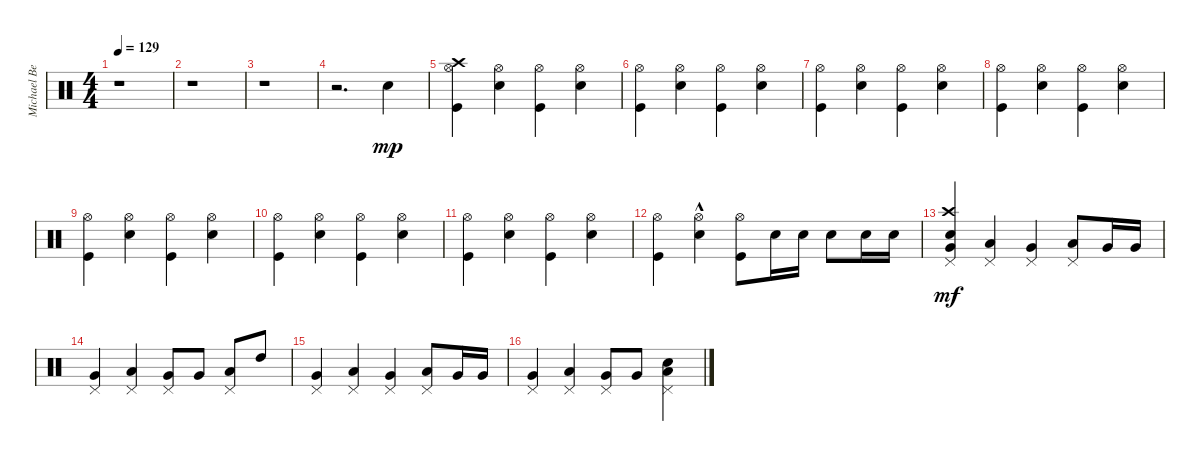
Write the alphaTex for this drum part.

\track ("Michael Beinham" "Michael Be") {instrument percussion}
\staff {score}
\articulation defaults
\ts (4 4)
\tempo 129
\clef neutral
\ks c
r.1{dy mp} |
r.1 |
r.1 |
r.2{d} "Snare (hit) 2".4{balance 8} |
("Kick (hit)" "Hi-Hat (open)" "Crash high (hit)").4 ("Snare (hit) 2" "Hi-Hat (open)").4 ("Kick (hit)" "Hi-Hat (open)").4 ("Snare (hit) 2" "Hi-Hat (open)").4 |
("Kick (hit)" "Hi-Hat (open)").4 ("Snare (hit) 2" "Hi-Hat (open)").4 ("Kick (hit)" "Hi-Hat (open)").4 ("Snare (hit) 2" "Hi-Hat (open)").4 |
("Kick (hit)" "Hi-Hat (open)").4 ("Snare (hit) 2" "Hi-Hat (open)").4 ("Kick (hit)" "Hi-Hat (open)").4 ("Snare (hit) 2" "Hi-Hat (open)").4 |
("Kick (hit)" "Hi-Hat (open)").4 ("Snare (hit) 2" "Hi-Hat (open)").4 ("Kick (hit)" "Hi-Hat (open)").4 ("Snare (hit) 2" "Hi-Hat (open)").4 |
("Kick (hit)" "Hi-Hat (open)").4 ("Snare (hit) 2" "Hi-Hat (open)").4 ("Kick (hit)" "Hi-Hat (open)").4 ("Snare (hit) 2" "Hi-Hat (open)").4 |
("Kick (hit)" "Hi-Hat (open)").4 ("Snare (hit) 2" "Hi-Hat (open)").4 ("Kick (hit)" "Hi-Hat (open)").4 ("Snare (hit) 2" "Hi-Hat (open)").4 |
("Kick (hit)" "Hi-Hat (open)").4 ("Snare (hit) 2" "Hi-Hat (open)").4 ("Kick (hit)" "Hi-Hat (open)").4 ("Snare (hit) 2" "Hi-Hat (open)").4 |
("Kick (hit)" "Hi-Hat (open)").4 ("Snare (hit) 2"{hac} "Hi-Hat (open)").4 ("Kick (hit)" "Hi-Hat (open)").8 "Snare (hit) 2".16 "Snare (hit) 2".16 "Snare (hit) 2".8 "Snare (hit) 2".16 "Snare (hit) 2".16 |
("Snare (hit) 2" "Pedal Hi-Hat (hit)" "Crash high (hit)" "Very Low Tom (hit)").4{dy mf} ("Pedal Hi-Hat (hit)" "Low Tom (hit)").4 ("Pedal Hi-Hat (hit)" "Very Low Tom (hit)").4 ("Pedal Hi-Hat (hit)" "Low Tom (hit)").8 "Very Low Tom (hit)".16 "Very Low Tom (hit)".16 |
("Pedal Hi-Hat (hit)" "Very Low Tom (hit)").4 ("Pedal Hi-Hat (hit)" "Low Tom (hit)").4 ("Pedal Hi-Hat (hit)" "Very Low Tom (hit)").8 "Very Low Tom (hit)".8 ("Pedal Hi-Hat (hit)" "Low Tom (hit)").8 "High Tom (hit)".8 |
("Pedal Hi-Hat (hit)" "Very Low Tom (hit)").4 ("Pedal Hi-Hat (hit)" "Low Tom (hit)").4 ("Pedal Hi-Hat (hit)" "Very Low Tom (hit)").4 ("Pedal Hi-Hat (hit)" "Low Tom (hit)").8 "Very Low Tom (hit)".16 "Very Low Tom (hit)".16 |
("Pedal Hi-Hat (hit)" "Very Low Tom (hit)").4 ("Pedal Hi-Hat (hit)" "Low Tom (hit)").4 ("Pedal Hi-Hat (hit)" "Very Low Tom (hit)").8 "Very Low Tom (hit)".8 ("Snare (hit) 2" "Pedal Hi-Hat (hit)" "Low Tom (hit)").4
